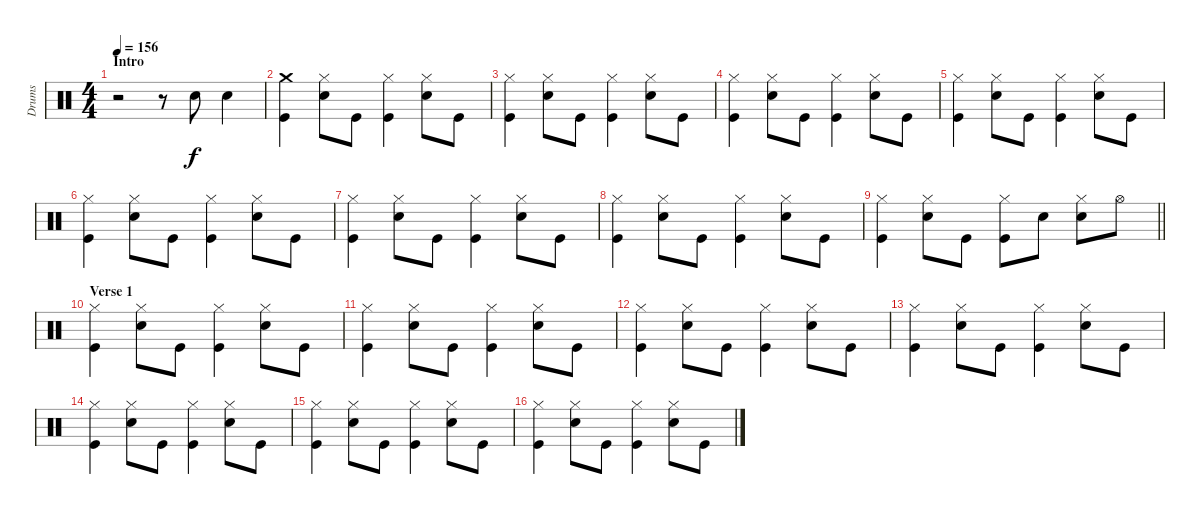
\track ("Drums" "Drums") {instrument percussion}
\staff {score}
\articulation defaults
\ts (4 4)
\section ("" "Intro")
\tempo 156
\clef neutral
\ks c
r.2{dy f} r.8 "Snare (hit) 2".8 "Snare (hit) 2".4 |
("Crash medium (hit)" "Kick (hit)").4 ("Hi-Hat (closed)" "Snare (hit) 2").8 "Kick (hit)".8 ("Hi-Hat (closed)" "Kick (hit)").4 ("Hi-Hat (closed)" "Snare (hit) 2").8 "Kick (hit)".8 |
("Hi-Hat (closed)" "Kick (hit)").4 ("Hi-Hat (closed)" "Snare (hit) 2").8 "Kick (hit)".8 ("Hi-Hat (closed)" "Kick (hit)").4 ("Hi-Hat (closed)" "Snare (hit) 2").8 "Kick (hit)".8 |
("Hi-Hat (closed)" "Kick (hit)").4 ("Hi-Hat (closed)" "Snare (hit) 2").8 "Kick (hit)".8 ("Hi-Hat (closed)" "Kick (hit)").4 ("Hi-Hat (closed)" "Snare (hit) 2").8 "Kick (hit)".8 |
("Hi-Hat (closed)" "Kick (hit)").4 ("Hi-Hat (closed)" "Snare (hit) 2").8 "Kick (hit)".8 ("Hi-Hat (closed)" "Kick (hit)").4 ("Hi-Hat (closed)" "Snare (hit) 2").8 "Kick (hit)".8 |
("Hi-Hat (closed)" "Kick (hit)").4 ("Hi-Hat (closed)" "Snare (hit) 2").8 "Kick (hit)".8 ("Hi-Hat (closed)" "Kick (hit)").4 ("Hi-Hat (closed)" "Snare (hit) 2").8 "Kick (hit)".8 |
("Hi-Hat (closed)" "Kick (hit)").4 ("Hi-Hat (closed)" "Snare (hit) 2").8 "Kick (hit)".8 ("Hi-Hat (closed)" "Kick (hit)").4 ("Hi-Hat (closed)" "Snare (hit) 2").8 "Kick (hit)".8 |
("Hi-Hat (closed)" "Kick (hit)").4 ("Hi-Hat (closed)" "Snare (hit) 2").8 "Kick (hit)".8 ("Hi-Hat (closed)" "Kick (hit)").4 ("Hi-Hat (closed)" "Snare (hit) 2").8 "Kick (hit)".8 |
\barLineRight lightlight
("Hi-Hat (closed)" "Kick (hit)").4 ("Hi-Hat (closed)" "Snare (hit) 2").8 "Kick (hit)".8 ("Hi-Hat (closed)" "Kick (hit)").8 "Snare (hit) 2".8 ("Hi-Hat (closed)" "Snare (hit) 2").8 "Hi-Hat (open)".8 |
\section ("" "Verse 1")
("Hi-Hat (closed)" "Kick (hit)").4 ("Hi-Hat (closed)" "Snare (hit) 2").8 "Kick (hit)".8 ("Hi-Hat (closed)" "Kick (hit)").4 ("Hi-Hat (closed)" "Snare (hit) 2").8 "Kick (hit)".8 |
("Hi-Hat (closed)" "Kick (hit)").4 ("Hi-Hat (closed)" "Snare (hit) 2").8 "Kick (hit)".8 ("Hi-Hat (closed)" "Kick (hit)").4 ("Hi-Hat (closed)" "Snare (hit) 2").8 "Kick (hit)".8 |
("Hi-Hat (closed)" "Kick (hit)").4 ("Hi-Hat (closed)" "Snare (hit) 2").8 "Kick (hit)".8 ("Hi-Hat (closed)" "Kick (hit)").4 ("Hi-Hat (closed)" "Snare (hit) 2").8 "Kick (hit)".8 |
("Hi-Hat (closed)" "Kick (hit)").4 ("Hi-Hat (closed)" "Snare (hit) 2").8 "Kick (hit)".8 ("Hi-Hat (closed)" "Kick (hit)").4 ("Hi-Hat (closed)" "Snare (hit) 2").8 "Kick (hit)".8 |
("Hi-Hat (closed)" "Kick (hit)").4 ("Hi-Hat (closed)" "Snare (hit) 2").8 "Kick (hit)".8 ("Hi-Hat (closed)" "Kick (hit)").4 ("Hi-Hat (closed)" "Snare (hit) 2").8 "Kick (hit)".8 |
("Hi-Hat (closed)" "Kick (hit)").4 ("Hi-Hat (closed)" "Snare (hit) 2").8 "Kick (hit)".8 ("Hi-Hat (closed)" "Kick (hit)").4 ("Hi-Hat (closed)" "Snare (hit) 2").8 "Kick (hit)".8 |
("Hi-Hat (closed)" "Kick (hit)").4 ("Hi-Hat (closed)" "Snare (hit) 2").8 "Kick (hit)".8 ("Hi-Hat (closed)" "Kick (hit)").4 ("Hi-Hat (closed)" "Snare (hit) 2").8 "Kick (hit)".8
